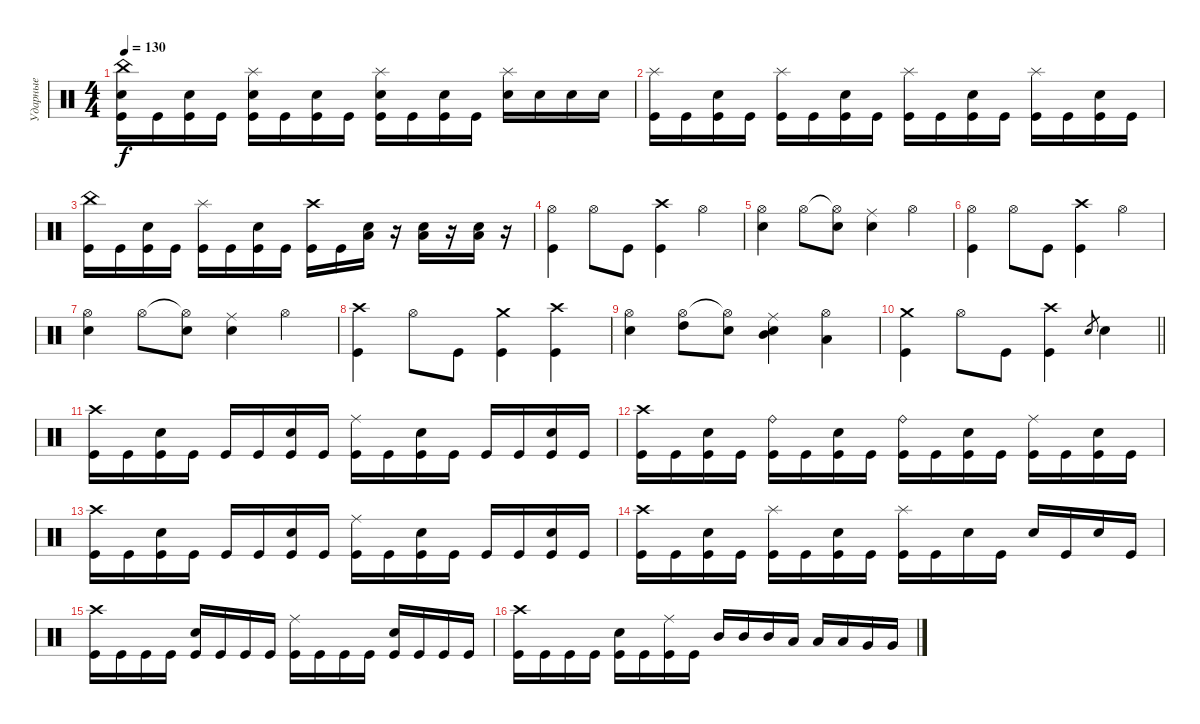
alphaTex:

\track ("Ударные" "Ударные") {instrument percussion}
\staff {score}
\articulation defaults
\ts (4 4)
\tempo 130
\clef neutral
\ks c
("China (hit)" "Electric Snare (hit)" "Kick (hit)").16{dy f} "Kick (hit)".16 ("Electric Snare (hit)" "Kick (hit)").16 "Kick (hit)".16 ("Splash (hit)" "Electric Snare (hit)" "Kick (hit)").16 "Kick (hit)".16 ("Electric Snare (hit)" "Kick (hit)").16 "Kick (hit)".16 ("Splash (hit)" "Electric Snare (hit)" "Kick (hit)").16 "Kick (hit)".16 ("Electric Snare (hit)" "Kick (hit)").16 "Kick (hit)".16 ("Splash (hit)" "Electric Snare (hit)").16 "Electric Snare (hit)".16 "Electric Snare (hit)".16 "Electric Snare (hit)".16 |
("Splash (hit)" "Kick (hit)").16 "Kick (hit)".16 ("Electric Snare (hit)" "Kick (hit)").16 "Kick (hit)".16 ("Splash (hit)" "Kick (hit)").16 "Kick (hit)".16 ("Electric Snare (hit)" "Kick (hit)").16 "Kick (hit)".16 ("Splash (hit)" "Kick (hit)").16 "Kick (hit)".16 ("Electric Snare (hit)" "Kick (hit)").16 "Kick (hit)".16 ("Splash (hit)" "Kick (hit)").16 "Kick (hit)".16 ("Electric Snare (hit)" "Kick (hit)").16 "Kick (hit)".16 |
("China (hit)" "Kick (hit)").16 "Kick (hit)".16 ("Electric Snare (hit)" "Kick (hit)").16 "Kick (hit)".16 ("Splash (hit)" "Kick (hit)").16 "Kick (hit)".16 ("Electric Snare (hit)" "Kick (hit)").16 "Kick (hit)".16 ("Crash high (hit)" "Kick (hit)").16 "Kick (hit)".16 ("Electric Snare (hit)" "Low Floor Tom (hit)").16 r.16 ("Electric Snare (hit)" "Low Floor Tom (hit)").16 r.16 ("Electric Snare (hit)" "Low Floor Tom (hit)").16 r.16 |
("Hi-Hat (open)" "Kick (hit)").4 "Hi-Hat (open)".8 "Kick (hit)".8 ("Crash high (hit)" "Kick (hit)").4 "Hi-Hat (open)".4 |
("Electric Snare (hit)" "Hi-Hat (open)").4 "Hi-Hat (open)".8 ("Hi-Hat (open)"{t} "Electric Snare (hit)").8 ("Ride (middle)" "Electric Snare (hit)").4 "Hi-Hat (open)".4 |
("Hi-Hat (open)" "Kick (hit)").4 "Hi-Hat (open)".8 "Kick (hit)".8 ("Crash high (hit)" "Kick (hit)").4 "Hi-Hat (open)".4 |
("Electric Snare (hit)" "Hi-Hat (open)").4 "Hi-Hat (open)".8 ("Hi-Hat (open)"{t} "Electric Snare (hit)").8 ("Ride (middle)" "Electric Snare (hit)").4 "Hi-Hat (open)".4 |
("Crash high (hit)" "Kick (hit)").4 "Hi-Hat (open)".8 "Kick (hit)".8 ("Crash medium (hit)" "Kick (hit)").4 ("Crash high (hit)" "Kick (hit)").4 |
("Electric Snare (hit)" "Hi-Hat (open)").4 ("Hi-Hat (open)" "High Tom (hit)").8 ("Hi-Hat (open)"{t} "Electric Snare (hit)").8 ("Ride (middle)" "Electric Snare (hit)" "Mid Tom (hit)").4 ("Hi-Hat (open)" "Low Tom (hit)").4 |
\barLineRight lightlight
("Crash medium (hit)" "Kick (hit)").4 "Hi-Hat (open)".8 "Kick (hit)".8 ("Crash high (hit)" "Kick (hit)").4 "Electric Snare (hit)".8{gr} "Electric Snare (hit)".4 |
\section ("" " ")
("Crash high (hit)" "Kick (hit)").16 "Kick (hit)".16 ("Electric Snare (hit)" "Kick (hit)").16 "Kick (hit)".16 "Kick (hit)".16 "Kick (hit)".16 ("Electric Snare (hit)" "Kick (hit)").16 "Kick (hit)".16 ("Ride (middle)" "Kick (hit)").16 "Kick (hit)".16 ("Electric Snare (hit)" "Kick (hit)").16 "Kick (hit)".16 "Kick (hit)".16 "Kick (hit)".16 ("Electric Snare (hit)" "Kick (hit)").16 "Kick (hit)".16 |
("Crash high (hit)" "Kick (hit)").16 "Kick (hit)".16 ("Electric Snare (hit)" "Kick (hit)").16 "Kick (hit)".16 ("Ride (bell)" "Kick (hit)").16 "Kick (hit)".16 ("Electric Snare (hit)" "Kick (hit)").16 "Kick (hit)".16 ("Ride (bell)" "Kick (hit)").16 "Kick (hit)".16 ("Electric Snare (hit)" "Kick (hit)").16 "Kick (hit)".16 ("Ride (middle)" "Kick (hit)").16 "Kick (hit)".16 ("Electric Snare (hit)" "Kick (hit)").16 "Kick (hit)".16 |
("Crash high (hit)" "Kick (hit)").16 "Kick (hit)".16 ("Electric Snare (hit)" "Kick (hit)").16 "Kick (hit)".16 "Kick (hit)".16 "Kick (hit)".16 ("Electric Snare (hit)" "Kick (hit)").16 "Kick (hit)".16 ("Ride (middle)" "Kick (hit)").16 "Kick (hit)".16 ("Electric Snare (hit)" "Kick (hit)").16 "Kick (hit)".16 "Kick (hit)".16 "Kick (hit)".16 ("Electric Snare (hit)" "Kick (hit)").16 "Kick (hit)".16 |
("Crash high (hit)" "Kick (hit)").16 "Kick (hit)".16 ("Electric Snare (hit)" "Kick (hit)").16 "Kick (hit)".16 ("Splash (hit)" "Kick (hit)").16 "Kick (hit)".16 ("Electric Snare (hit)" "Kick (hit)").16 "Kick (hit)".16 ("Splash (hit)" "Kick (hit)").16 "Kick (hit)".16 "Electric Snare (hit)".16 "Kick (hit)".16 "Electric Snare (hit)".16 "Kick (hit)".16 "Electric Snare (hit)".16 "Kick (hit)".16 |
("Crash high (hit)" "Kick (hit)").16 "Kick (hit)".16 "Kick (hit)".16 "Kick (hit)".16 ("Electric Snare (hit)" "Kick (hit)").16 "Kick (hit)".16 "Kick (hit)".16 "Kick (hit)".16 ("Ride (middle)" "Kick (hit)").16 "Kick (hit)".16 "Kick (hit)".16 "Kick (hit)".16 ("Electric Snare (hit)" "Kick (hit)").16 "Kick (hit)".16 "Kick (hit)".16 "Kick (hit)".16 |
("Crash high (hit)" "Kick (hit)").16 "Kick (hit)".16 "Kick (hit)".16 "Kick (hit)".16 ("Electric Snare (hit)" "Kick (hit)").16 "Kick (hit)".16 ("Ride (middle)" "Kick (hit)").16 "Kick (hit)".16 "Mid Tom (hit)".16 "Mid Tom (hit)".16 "Mid Tom (hit)".16 "Low Tom (hit)".16 "Low Tom (hit)".16 "Low Tom (hit)".16 "Very Low Tom (hit)".16 "Very Low Tom (hit)".16
